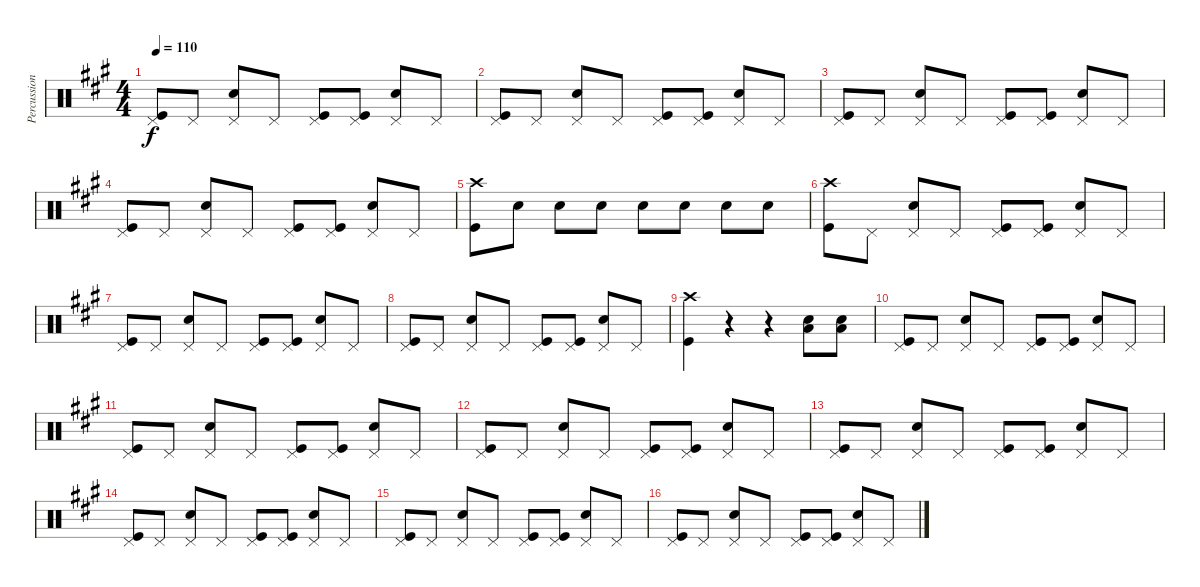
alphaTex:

\track ("Percussion" "Percussion") {instrument percussion}
\staff {score}
\articulation defaults
\ts (4 4)
\tempo 110
\clef neutral
\ks a
("Pedal Hi-Hat (hit)" "Kick (hit)").8{dy f} "Pedal Hi-Hat (hit)".8 ("Pedal Hi-Hat (hit)" "Snare (hit) 2").8 "Pedal Hi-Hat (hit)".8 ("Pedal Hi-Hat (hit)" "Kick (hit)").8 ("Pedal Hi-Hat (hit)" "Kick (hit)").8 ("Pedal Hi-Hat (hit)" "Snare (hit) 2").8 "Pedal Hi-Hat (hit)".8 |
("Pedal Hi-Hat (hit)" "Kick (hit)").8 "Pedal Hi-Hat (hit)".8 ("Pedal Hi-Hat (hit)" "Snare (hit) 2").8 "Pedal Hi-Hat (hit)".8 ("Pedal Hi-Hat (hit)" "Kick (hit)").8 ("Pedal Hi-Hat (hit)" "Kick (hit)").8 ("Pedal Hi-Hat (hit)" "Snare (hit) 2").8 "Pedal Hi-Hat (hit)".8 |
("Pedal Hi-Hat (hit)" "Kick (hit)").8 "Pedal Hi-Hat (hit)".8 ("Pedal Hi-Hat (hit)" "Snare (hit) 2").8 "Pedal Hi-Hat (hit)".8 ("Pedal Hi-Hat (hit)" "Kick (hit)").8 ("Pedal Hi-Hat (hit)" "Kick (hit)").8 ("Pedal Hi-Hat (hit)" "Snare (hit) 2").8 "Pedal Hi-Hat (hit)".8 |
("Pedal Hi-Hat (hit)" "Kick (hit)").8 "Pedal Hi-Hat (hit)".8 ("Pedal Hi-Hat (hit)" "Snare (hit) 2").8 "Pedal Hi-Hat (hit)".8 ("Pedal Hi-Hat (hit)" "Kick (hit)").8 ("Pedal Hi-Hat (hit)" "Kick (hit)").8 ("Pedal Hi-Hat (hit)" "Snare (hit) 2").8 "Pedal Hi-Hat (hit)".8 |
("Crash high (hit)" "Kick (hit)").8 "Snare (hit) 2".8 "Snare (hit) 2".8 "Snare (hit) 2".8 "Snare (hit) 2".8 "Snare (hit) 2".8 "Snare (hit) 2".8 "Snare (hit) 2".8 |
("Crash high (hit)" "Kick (hit)").8 "Pedal Hi-Hat (hit)".8 ("Pedal Hi-Hat (hit)" "Snare (hit) 2").8 "Pedal Hi-Hat (hit)".8 ("Pedal Hi-Hat (hit)" "Kick (hit)").8 ("Pedal Hi-Hat (hit)" "Kick (hit)").8 ("Pedal Hi-Hat (hit)" "Snare (hit) 2").8 "Pedal Hi-Hat (hit)".8 |
("Pedal Hi-Hat (hit)" "Kick (hit)").8 "Pedal Hi-Hat (hit)".8 ("Pedal Hi-Hat (hit)" "Snare (hit) 2").8 "Pedal Hi-Hat (hit)".8 ("Pedal Hi-Hat (hit)" "Kick (hit)").8 ("Pedal Hi-Hat (hit)" "Kick (hit)").8 ("Pedal Hi-Hat (hit)" "Snare (hit) 2").8 "Pedal Hi-Hat (hit)".8 |
("Pedal Hi-Hat (hit)" "Kick (hit)").8 "Pedal Hi-Hat (hit)".8 ("Pedal Hi-Hat (hit)" "Snare (hit) 2").8 "Pedal Hi-Hat (hit)".8 ("Pedal Hi-Hat (hit)" "Kick (hit)").8 ("Pedal Hi-Hat (hit)" "Kick (hit)").8 ("Pedal Hi-Hat (hit)" "Snare (hit) 2").8 "Pedal Hi-Hat (hit)".8 |
("Crash high (hit)" "Kick (hit)").4 r.4 r.4 ("Low Floor Tom (hit)" "Snare (hit) 2").8 ("Low Floor Tom (hit)" "Snare (hit) 2").8 |
("Pedal Hi-Hat (hit)" "Kick (hit)").8 "Pedal Hi-Hat (hit)".8 ("Pedal Hi-Hat (hit)" "Snare (hit) 2").8 "Pedal Hi-Hat (hit)".8 ("Pedal Hi-Hat (hit)" "Kick (hit)").8 ("Pedal Hi-Hat (hit)" "Kick (hit)").8 ("Pedal Hi-Hat (hit)" "Snare (hit) 2").8 "Pedal Hi-Hat (hit)".8 |
("Pedal Hi-Hat (hit)" "Kick (hit)").8 "Pedal Hi-Hat (hit)".8 ("Pedal Hi-Hat (hit)" "Snare (hit) 2").8 "Pedal Hi-Hat (hit)".8 ("Pedal Hi-Hat (hit)" "Kick (hit)").8 ("Pedal Hi-Hat (hit)" "Kick (hit)").8 ("Pedal Hi-Hat (hit)" "Snare (hit) 2").8 "Pedal Hi-Hat (hit)".8 |
("Pedal Hi-Hat (hit)" "Kick (hit)").8 "Pedal Hi-Hat (hit)".8 ("Pedal Hi-Hat (hit)" "Snare (hit) 2").8 "Pedal Hi-Hat (hit)".8 ("Pedal Hi-Hat (hit)" "Kick (hit)").8 ("Pedal Hi-Hat (hit)" "Kick (hit)").8 ("Pedal Hi-Hat (hit)" "Snare (hit) 2").8 "Pedal Hi-Hat (hit)".8 |
("Pedal Hi-Hat (hit)" "Kick (hit)").8 "Pedal Hi-Hat (hit)".8 ("Pedal Hi-Hat (hit)" "Snare (hit) 2").8 "Pedal Hi-Hat (hit)".8 ("Pedal Hi-Hat (hit)" "Kick (hit)").8 ("Pedal Hi-Hat (hit)" "Kick (hit)").8 ("Pedal Hi-Hat (hit)" "Snare (hit) 2").8 "Pedal Hi-Hat (hit)".8 |
("Pedal Hi-Hat (hit)" "Kick (hit)").8 "Pedal Hi-Hat (hit)".8 ("Pedal Hi-Hat (hit)" "Snare (hit) 2").8 "Pedal Hi-Hat (hit)".8 ("Pedal Hi-Hat (hit)" "Kick (hit)").8 ("Pedal Hi-Hat (hit)" "Kick (hit)").8 ("Pedal Hi-Hat (hit)" "Snare (hit) 2").8 "Pedal Hi-Hat (hit)".8 |
("Pedal Hi-Hat (hit)" "Kick (hit)").8 "Pedal Hi-Hat (hit)".8 ("Pedal Hi-Hat (hit)" "Snare (hit) 2").8 "Pedal Hi-Hat (hit)".8 ("Pedal Hi-Hat (hit)" "Kick (hit)").8 ("Pedal Hi-Hat (hit)" "Kick (hit)").8 ("Pedal Hi-Hat (hit)" "Snare (hit) 2").8 "Pedal Hi-Hat (hit)".8 |
("Pedal Hi-Hat (hit)" "Kick (hit)").8 "Pedal Hi-Hat (hit)".8 ("Pedal Hi-Hat (hit)" "Snare (hit) 2").8 "Pedal Hi-Hat (hit)".8 ("Pedal Hi-Hat (hit)" "Kick (hit)").8 ("Pedal Hi-Hat (hit)" "Kick (hit)").8 ("Pedal Hi-Hat (hit)" "Snare (hit) 2").8 "Pedal Hi-Hat (hit)".8
